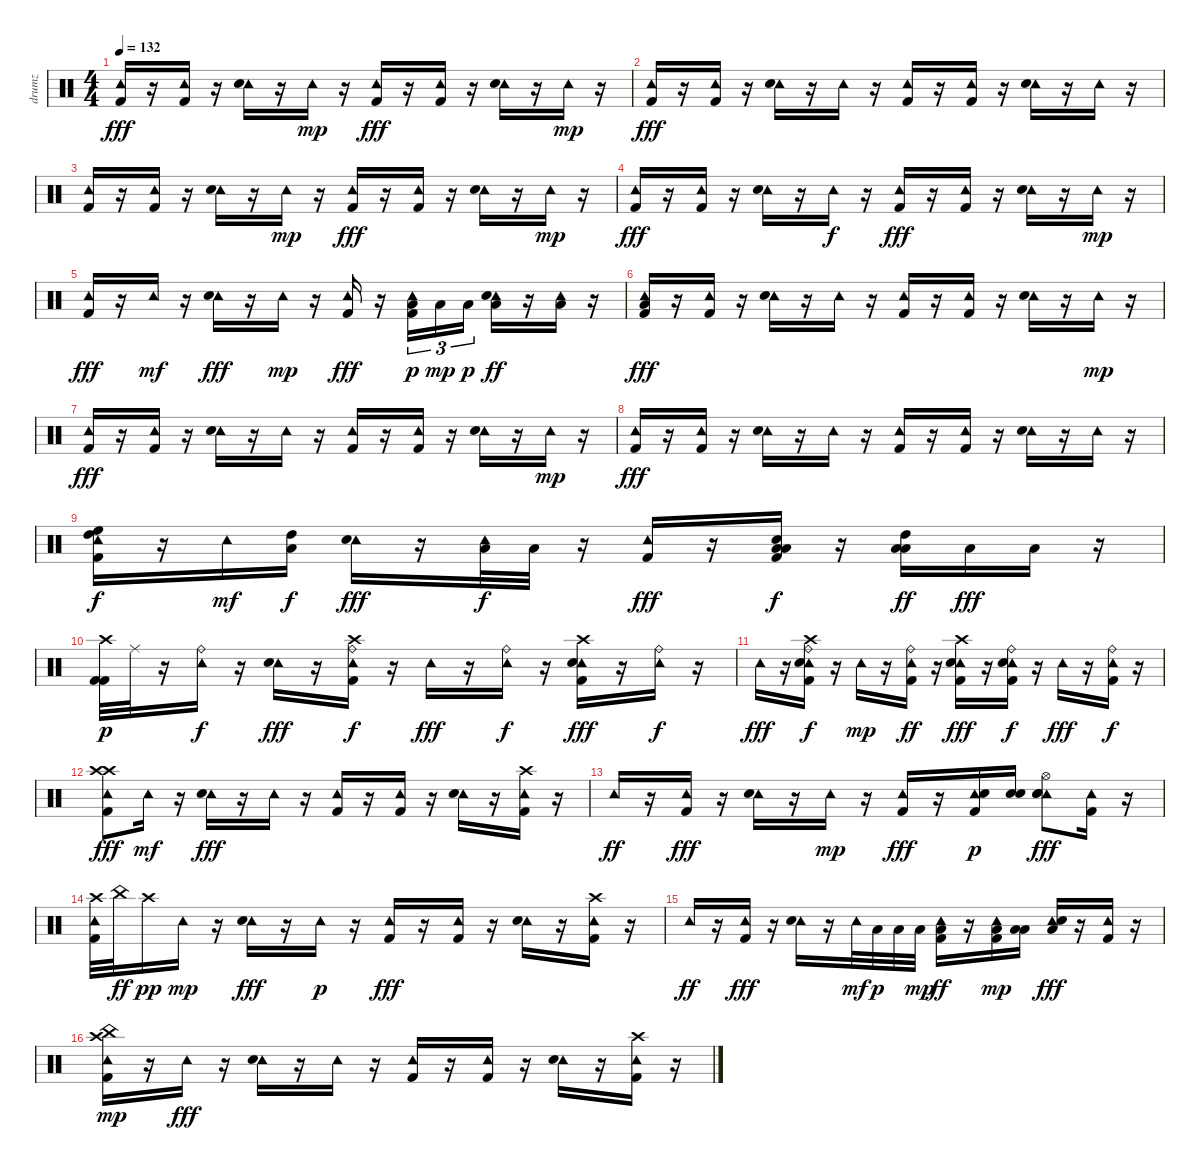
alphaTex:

\track ("drumz" "drumz") {instrument percussion}
\staff {score}
\articulation defaults
\ts (4 4)
\tempo 132
\clef neutral
\ks c
("Tambourine (hit)" "Kick (hit) 2").16{dy fff} r.16 ("Tambourine (hit)" "Kick (hit) 2").16 r.16 ("Tambourine (hit)" "Snare (hit) 2").16 r.16 "Tambourine (hit)".16{dy mp} r.16 ("Tambourine (hit)" "Kick (hit) 2").16{dy fff} r.16 ("Tambourine (hit)" "Kick (hit) 2").16 r.16 ("Tambourine (hit)" "Snare (hit) 2").16 r.16 "Tambourine (hit)".16{dy mp} r.16 |
("Tambourine (hit)" "Kick (hit) 2").16{dy fff} r.16 ("Tambourine (hit)" "Kick (hit) 2").16 r.16 ("Tambourine (hit)" "Snare (hit) 2").16 r.16 "Tambourine (hit)".16 r.16 ("Tambourine (hit)" "Kick (hit) 2").16 r.16 ("Tambourine (hit)" "Kick (hit) 2").16 r.16 ("Tambourine (hit)" "Snare (hit) 2").16 r.16 "Tambourine (hit)".16 r.16 |
("Tambourine (hit)" "Kick (hit) 2").16 r.16 ("Tambourine (hit)" "Kick (hit) 2").16 r.16 ("Tambourine (hit)" "Snare (hit) 2").16 r.16 "Tambourine (hit)".16{dy mp} r.16 ("Tambourine (hit)" "Kick (hit) 2").16{dy fff} r.16 ("Tambourine (hit)" "Kick (hit) 2").16 r.16 ("Tambourine (hit)" "Snare (hit) 2").16 r.16 "Tambourine (hit)".16{dy mp} r.16 |
("Tambourine (hit)" "Kick (hit) 2").16{dy fff} r.16 ("Tambourine (hit)" "Kick (hit) 2").16 r.16 ("Tambourine (hit)" "Snare (hit) 2").16 r.16 "Tambourine (hit)".16{dy f} r.16 ("Tambourine (hit)" "Kick (hit) 2").16{dy fff} r.16 ("Tambourine (hit)" "Kick (hit) 2").16 r.16 ("Tambourine (hit)" "Snare (hit) 2").16 r.16 "Tambourine (hit)".16{dy mp} r.16 |
("Tambourine (hit)" "Kick (hit) 2").16{dy fff} r.16 "Tambourine (hit)".16{dy mf} r.16 ("Tambourine (hit)" "Snare (hit) 2").16{dy fff} r.16 "Tambourine (hit)".16{dy mp} r.16 ("Tambourine (hit)" "Kick (hit) 2").16{dy fff} r.16 ("Tambourine (hit)" "Kick (hit) 2" "Low Tom (hit)").16{tu (3 2) dy p} "Low Tom (hit)".16{tu (3 2) dy mp} "Low Tom (hit)".16{tu (3 2) dy p} ("Tambourine (hit)" "Snare (hit) 2" "Low Tom (hit)").16{dy ff} r.16 ("Tambourine (hit)" "Low Floor Tom (hit)").16 r.16 |
("Tambourine (hit)" "Kick (hit) 2" "Low Floor Tom (hit)").16{dy fff} r.16 ("Tambourine (hit)" "Kick (hit) 2").16 r.16 ("Tambourine (hit)" "Snare (hit) 2").16 r.16 "Tambourine (hit)".16 r.16 ("Tambourine (hit)" "Kick (hit) 2").16 r.16 ("Tambourine (hit)" "Kick (hit) 2").16 r.16 ("Tambourine (hit)" "Snare (hit) 2").16 r.16 "Tambourine (hit)".16{dy mp} r.16 |
("Tambourine (hit)" "Kick (hit) 2").16{dy fff} r.16 ("Tambourine (hit)" "Kick (hit) 2").16 r.16 ("Tambourine (hit)" "Snare (hit) 2").16 r.16 "Tambourine (hit)".16 r.16 ("Tambourine (hit)" "Kick (hit) 2").16 r.16 ("Tambourine (hit)" "Kick (hit) 2").16 r.16 ("Tambourine (hit)" "Snare (hit) 2").16 r.16 "Tambourine (hit)".16{dy mp} r.16 |
("Tambourine (hit)" "Kick (hit) 2").16{dy fff} r.16 ("Tambourine (hit)" "Kick (hit) 2").16 r.16 ("Tambourine (hit)" "Snare (hit) 2").16 r.16 "Tambourine (hit)".16 r.16 ("Tambourine (hit)" "Kick (hit) 2").16 r.16 ("Tambourine (hit)" "Kick (hit) 2").16 r.16 ("Tambourine (hit)" "Snare (hit) 2").16 r.16 "Tambourine (hit)".16 r.16 |
("Tambourine (hit)" "Kick (hit) 2" "High Tom (hit)" "High Floor Tom (hit)").16{dy f} r.16 "Tambourine (hit)".16{dy mf} ("High Tom (hit)" "Low Tom (hit)").16{dy f} ("Tambourine (hit)" "Snare (hit) 2").16{dy fff} r.16 ("Tambourine (hit)" "Low Floor Tom (hit)").32{dy f} "Low Tom (hit)".32 r.16 ("Tambourine (hit)" "Kick (hit) 2").16{dy fff} r.16 ("Snare (hit) 2" "Kick (hit) 2" "Low Tom (hit)" "Low Floor Tom (hit)").16{dy f} r.16 ("High Tom (hit)" "Low Tom (hit)" "Low Floor Tom (hit)").16{dy ff} "Low Tom (hit)".16{dy fff} "Low Floor Tom (hit)".16 r.16 |
("Crash high (hit)" "Kick (hit) 2" "Kick (hit) 2").32{dy p} "Ride (middle)".32 r.16 ("Tambourine (hit)" "Ride (bell)").16{dy f} r.16 ("Tambourine (hit)" "Snare (hit) 2").16{dy fff} r.16 ("Tambourine (hit)" "Crash high (hit)" "Kick (hit) 2" "Ride (bell)").16{dy f} r.16 "Tambourine (hit)".16{dy fff} r.16 ("Tambourine (hit)" "Ride (bell)").16{dy f} r.16 ("Tambourine (hit)" "Crash high (hit)" "Snare (hit) 2" "Kick (hit) 2").16{dy fff} r.16 ("Tambourine (hit)" "Ride (bell)").16{dy f} r.16 |
"Tambourine (hit)".16{dy fff} r.16 ("Tambourine (hit)" "Crash high (hit)" "Snare (hit) 2" "Kick (hit) 2" "Ride (bell)").16{dy f} r.16 "Tambourine (hit)".16{dy mp} r.16 ("Tambourine (hit)" "Kick (hit) 2" "Ride (bell)").16{dy ff} r.16 ("Tambourine (hit)" "Crash high (hit)" "Snare (hit) 2" "Kick (hit) 2").16{dy fff} r.16 ("Tambourine (hit)" "Snare (hit) 2" "Kick (hit) 2" "Ride (bell)").16{dy f} r.16 "Tambourine (hit)".16{dy fff} r.16 ("Tambourine (hit)" "Kick (hit) 2" "Ride (bell)").16{dy f} r.16 |
("Tambourine (hit)" "Crash high (hit)" "Kick (hit) 2" "Crash high (hit)").8{dy fff} "Tambourine (hit)".16{dy mf} r.16 ("Tambourine (hit)" "Snare (hit) 2").16{dy fff} r.16 "Tambourine (hit)".16 r.16 ("Tambourine (hit)" "Kick (hit) 2").16 r.16 ("Tambourine (hit)" "Kick (hit) 2").16 r.16 ("Tambourine (hit)" "Snare (hit) 2").16 r.16 ("Tambourine (hit)" "Crash high (hit)" "Kick (hit) 2").16 r.16 |
"Tambourine (hit)".16{dy ff} r.16 ("Tambourine (hit)" "Kick (hit) 2").16{dy fff} r.16 ("Tambourine (hit)" "Snare (hit) 2").16 r.16 "Tambourine (hit)".16{dy mp} r.16 ("Tambourine (hit)" "Kick (hit) 2").16{dy fff} r.16 ("Tambourine (hit)" "Kick (hit) 2" "Snare (hit) 2").16{dy p} ("Snare (hit) 2" "Snare (hit) 2").16 ("Tambourine (hit)" "Snare (hit) 2" "Hi-Hat (open)" "Snare (hit) 2").8{dy fff} ("Tambourine (hit)" "Kick (hit) 2").16 r.16 |
("Tambourine (hit)" "Crash high (hit)" "Kick (hit) 2").32 "China (hit)".32{dy ff} "Crash high (hit)".16{dy pp} "Tambourine (hit)".16{dy mp} r.16 ("Tambourine (hit)" "Snare (hit) 2").16{dy fff} r.16 "Tambourine (hit)".16{dy p} r.16 ("Tambourine (hit)" "Kick (hit) 2").16{dy fff} r.16 ("Tambourine (hit)" "Kick (hit) 2").16 r.16 ("Tambourine (hit)" "Snare (hit) 2").16 r.16 ("Tambourine (hit)" "Crash high (hit)" "Kick (hit) 2").16 r.16 |
"Tambourine (hit)".16{dy ff} r.16 ("Tambourine (hit)" "Kick (hit) 2").16{dy fff} r.16 ("Tambourine (hit)" "Snare (hit) 2").16 r.16 "Tambourine (hit)".32{dy mf} "Low Tom (hit)".32{dy p} "Low Tom (hit)".32 "Low Tom (hit)".32{dy mp} ("Tambourine (hit)" "Kick (hit) 2" "Low Tom (hit)").16{dy ff} r.16 ("Tambourine (hit)" "Kick (hit) 2" "Low Floor Tom (hit)").16{dy mp} ("Low Floor Tom (hit)" "Low Floor Tom (hit)").16 ("Low Floor Tom (hit)" "Tambourine (hit)" "Snare (hit) 2").16{dy fff} r.16 ("Tambourine (hit)" "Kick (hit) 2").16 r.16 |
("Tambourine (hit)" "Crash high (hit)" "Kick (hit) 2" "China (hit)").16{dy mp} r.16 "Tambourine (hit)".16{dy fff} r.16 ("Tambourine (hit)" "Snare (hit) 2").16 r.16 "Tambourine (hit)".16 r.16 ("Tambourine (hit)" "Kick (hit) 2").16 r.16 ("Tambourine (hit)" "Kick (hit) 2").16 r.16 ("Tambourine (hit)" "Snare (hit) 2").16 r.16 ("Tambourine (hit)" "Crash high (hit)" "Kick (hit) 2").16 r.16
